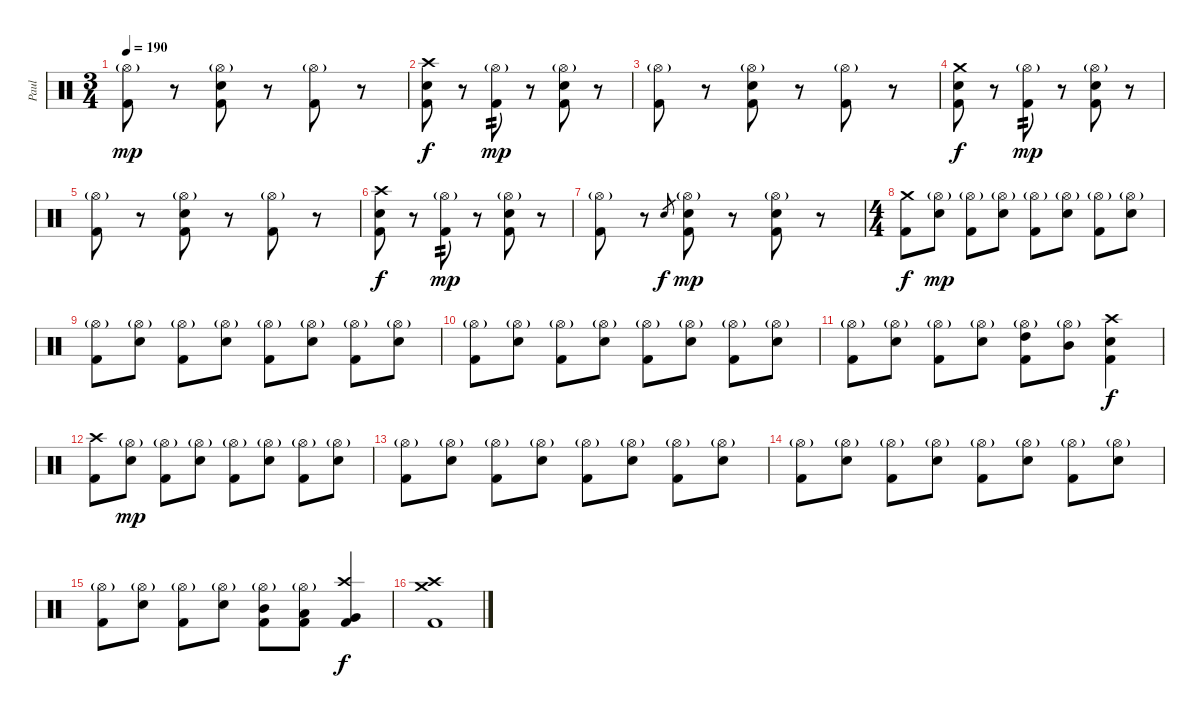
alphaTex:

\track ("Paul" "Paul") {instrument percussion}
\staff {score}
\articulation defaults
\ts (3 4)
\tempo 190
\clef neutral
\ks c
("Hi-Hat (open)"{g} "Kick (hit) 2").8{dy mp} r.8 ("Electric Snare (hit)" "Hi-Hat (open)"{g} "Kick (hit) 2").8 r.8 ("Hi-Hat (open)"{g} "Kick (hit) 2").8 r.8 |
("Electric Snare (hit)" "Crash high (hit)" "Kick (hit) 2").8{dy f} r.8 ("Hi-Hat (open)"{g} "Kick (hit) 2").8{tp 2 dy mp} r.8 ("Electric Snare (hit)" "Hi-Hat (open)"{g} "Kick (hit) 2").8 r.8 |
("Hi-Hat (open)"{g} "Kick (hit) 2").8 r.8 ("Electric Snare (hit)" "Hi-Hat (open)"{g} "Kick (hit) 2").8 r.8 ("Hi-Hat (open)"{g} "Kick (hit) 2").8 r.8 |
("Electric Snare (hit)" "Crash medium (hit)" "Kick (hit) 2").8{dy f} r.8 ("Hi-Hat (open)"{g} "Kick (hit) 2").8{tp 2 dy mp} r.8 ("Electric Snare (hit)" "Hi-Hat (open)"{g} "Kick (hit) 2").8 r.8 |
("Hi-Hat (open)"{g} "Kick (hit) 2").8 r.8 ("Electric Snare (hit)" "Hi-Hat (open)"{g} "Kick (hit) 2").8 r.8 ("Hi-Hat (open)"{g} "Kick (hit) 2").8 r.8 |
("Electric Snare (hit)" "Crash high (hit)" "Kick (hit) 2").8{dy f} r.8 ("Hi-Hat (open)"{g} "Kick (hit) 2").8{tp 2 dy mp} r.8 ("Electric Snare (hit)" "Hi-Hat (open)"{g} "Kick (hit) 2").8 r.8 |
("Hi-Hat (open)"{g} "Kick (hit) 2").8 r.8 "Electric Snare (hit)".8{gr dy f} ("Electric Snare (hit)" "Hi-Hat (open)"{g} "Kick (hit) 2").8{dy mp} r.8 ("Electric Snare (hit)" "Hi-Hat (open)"{g} "Kick (hit) 2").8 r.8 |
\ts (4 4)
("Crash medium (hit)" "Kick (hit) 2").8{dy f} ("Hi-Hat (open)"{g} "Electric Snare (hit)").8{dy mp} ("Hi-Hat (open)"{g} "Kick (hit) 2").8 ("Hi-Hat (open)"{g} "Electric Snare (hit)").8 ("Hi-Hat (open)"{g} "Kick (hit) 2").8 ("Hi-Hat (open)"{g} "Electric Snare (hit)").8 ("Hi-Hat (open)"{g} "Kick (hit) 2").8 ("Hi-Hat (open)"{g} "Electric Snare (hit)").8 |
("Hi-Hat (open)"{g} "Kick (hit) 2").8 ("Hi-Hat (open)"{g} "Electric Snare (hit)").8 ("Hi-Hat (open)"{g} "Kick (hit) 2").8 ("Hi-Hat (open)"{g} "Electric Snare (hit)").8 ("Hi-Hat (open)"{g} "Kick (hit) 2").8 ("Hi-Hat (open)"{g} "Electric Snare (hit)").8 ("Hi-Hat (open)"{g} "Kick (hit) 2").8 ("Hi-Hat (open)"{g} "Electric Snare (hit)").8 |
("Hi-Hat (open)"{g} "Kick (hit) 2").8 ("Hi-Hat (open)"{g} "Electric Snare (hit)").8 ("Hi-Hat (open)"{g} "Kick (hit) 2").8 ("Hi-Hat (open)"{g} "Electric Snare (hit)").8 ("Hi-Hat (open)"{g} "Kick (hit) 2").8 ("Hi-Hat (open)"{g} "Electric Snare (hit)").8 ("Hi-Hat (open)"{g} "Kick (hit) 2").8 ("Hi-Hat (open)"{g} "Electric Snare (hit)").8 |
("Hi-Hat (open)"{g} "Kick (hit) 2").8 ("Hi-Hat (open)"{g} "Electric Snare (hit)").8 ("Hi-Hat (open)"{g} "Kick (hit) 2").8 ("Hi-Hat (open)"{g} "Electric Snare (hit)").8 ("Hi-Hat (open)"{g} "High Tom (hit)" "Kick (hit) 2").8 ("Hi-Hat (open)"{g} "Mid Tom (hit)").8 ("Crash high (hit)" "Electric Snare (hit)" "Kick (hit) 2").4{dy f} |
("Crash high (hit)" "Kick (hit) 2").8 ("Hi-Hat (open)"{g} "Electric Snare (hit)").8{dy mp} ("Hi-Hat (open)"{g} "Kick (hit) 2").8 ("Hi-Hat (open)"{g} "Electric Snare (hit)").8 ("Hi-Hat (open)"{g} "Kick (hit) 2").8 ("Hi-Hat (open)"{g} "Electric Snare (hit)").8 ("Hi-Hat (open)"{g} "Kick (hit) 2").8 ("Hi-Hat (open)"{g} "Electric Snare (hit)").8 |
("Hi-Hat (open)"{g} "Kick (hit) 2").8 ("Hi-Hat (open)"{g} "Electric Snare (hit)").8 ("Hi-Hat (open)"{g} "Kick (hit) 2").8 ("Hi-Hat (open)"{g} "Electric Snare (hit)").8 ("Hi-Hat (open)"{g} "Kick (hit) 2").8 ("Hi-Hat (open)"{g} "Electric Snare (hit)").8 ("Hi-Hat (open)"{g} "Kick (hit) 2").8 ("Hi-Hat (open)"{g} "Electric Snare (hit)").8 |
("Hi-Hat (open)"{g} "Kick (hit) 2").8 ("Hi-Hat (open)"{g} "Electric Snare (hit)").8 ("Hi-Hat (open)"{g} "Kick (hit) 2").8 ("Hi-Hat (open)"{g} "Electric Snare (hit)").8 ("Hi-Hat (open)"{g} "Kick (hit) 2").8 ("Hi-Hat (open)"{g} "Electric Snare (hit)").8 ("Hi-Hat (open)"{g} "Kick (hit) 2").8 ("Hi-Hat (open)"{g} "Electric Snare (hit)").8 |
("Hi-Hat (open)"{g} "Kick (hit) 2").8 ("Hi-Hat (open)"{g} "Electric Snare (hit)").8 ("Hi-Hat (open)"{g} "Kick (hit) 2").8 ("Hi-Hat (open)"{g} "Electric Snare (hit)").8 ("Hi-Hat (open)"{g} "Mid Tom (hit)" "Kick (hit) 2").8 ("Hi-Hat (open)"{g} "Low Tom (hit)" "Kick (hit) 2").8 ("Crash high (hit)" "Very Low Tom (hit)" "Kick (hit) 2").4{dy f} |
("Crash high (hit)" "Crash medium (hit)" "Kick (hit) 2").1
